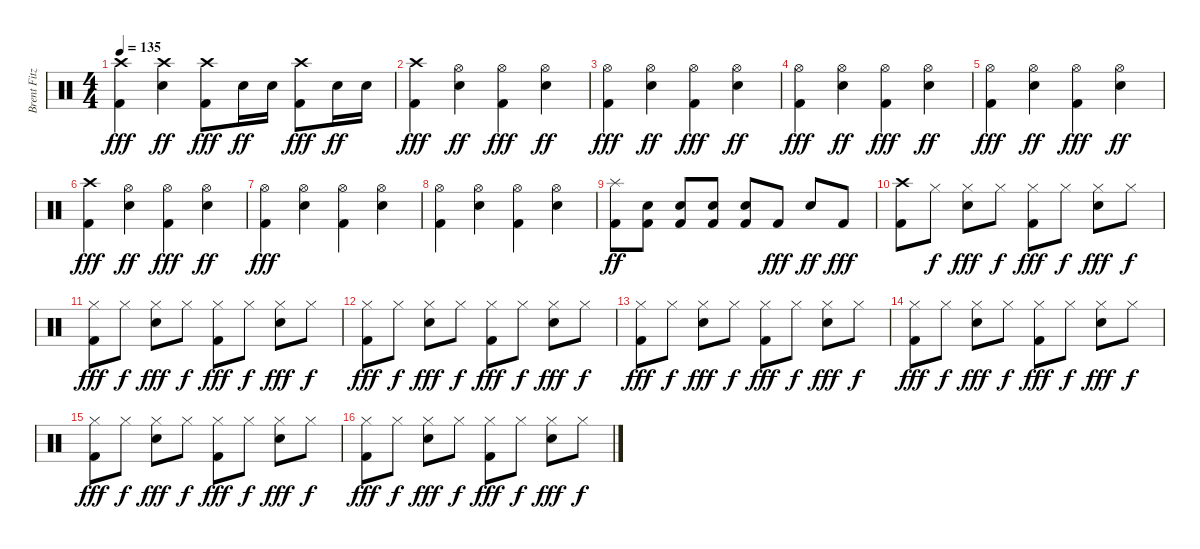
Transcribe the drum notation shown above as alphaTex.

\track ("Brent Fitz" "Brent Fitz") {instrument percussion}
\staff {score}
\articulation defaults
\ts (4 4)
\tempo 135
\clef neutral
\ks c
("Crash high (hit)" "Kick (hit) 2").4{dy fff} ("Crash high (hit)" "Snare (hit) 2").4{dy ff} ("Crash high (hit)" "Kick (hit) 2").8{dy fff} "Snare (hit) 2".16{dy ff} "Snare (hit) 2".16 ("Crash high (hit)" "Kick (hit) 2").8{dy fff} "Snare (hit) 2".16{dy ff} "Snare (hit) 2".16 |
("Crash high (hit)" "Kick (hit) 2").4{dy fff} ("Hi-Hat (open)" "Snare (hit) 2").4{dy ff} ("Hi-Hat (open)" "Kick (hit) 2").4{dy fff} ("Hi-Hat (open)" "Snare (hit) 2").4{dy ff} |
("Hi-Hat (open)" "Kick (hit) 2").4{dy fff} ("Hi-Hat (open)" "Snare (hit) 2").4{dy ff} ("Hi-Hat (open)" "Kick (hit) 2").4{dy fff} ("Hi-Hat (open)" "Snare (hit) 2").4{dy ff} |
("Hi-Hat (open)" "Kick (hit) 2").4{dy fff} ("Hi-Hat (open)" "Snare (hit) 2").4{dy ff} ("Hi-Hat (open)" "Kick (hit) 2").4{dy fff} ("Hi-Hat (open)" "Snare (hit) 2").4{dy ff} |
("Hi-Hat (open)" "Kick (hit) 2").4{dy fff} ("Hi-Hat (open)" "Snare (hit) 2").4{dy ff} ("Hi-Hat (open)" "Kick (hit) 2").4{dy fff} ("Hi-Hat (open)" "Snare (hit) 2").4{dy ff} |
("Crash high (hit)" "Kick (hit) 2").4{dy fff} ("Hi-Hat (open)" "Snare (hit) 2").4{dy ff} ("Hi-Hat (open)" "Kick (hit) 2").4{dy fff} ("Hi-Hat (open)" "Snare (hit) 2").4{dy ff} |
("Hi-Hat (open)" "Kick (hit) 2").4{dy fff} ("Hi-Hat (open)" "Snare (hit) 2").4 ("Hi-Hat (open)" "Kick (hit) 2").4 ("Hi-Hat (open)" "Snare (hit) 2").4 |
("Hi-Hat (open)" "Kick (hit) 2").4 ("Hi-Hat (open)" "Snare (hit) 2").4 ("Hi-Hat (open)" "Kick (hit) 2").4 ("Hi-Hat (open)" "Snare (hit) 2").4 |
("Splash (hit)" "Kick (hit) 2").8{dy ff} ("Snare (hit) 2" "Kick (hit) 2").8 ("Snare (hit) 2" "Kick (hit) 2").8 ("Snare (hit) 2" "Kick (hit) 2").8 ("Snare (hit) 2" "Kick (hit) 2").8 "Kick (hit) 2".8{dy fff} "Snare (hit) 2".8{dy ff} "Kick (hit) 2".8{dy fff} |
("Crash high (hit)" "Kick (hit) 2").8 "Hi-Hat (closed)".8{dy f} ("Hi-Hat (closed)" "Snare (hit) 2").8{dy fff} "Hi-Hat (closed)".8{dy f} ("Hi-Hat (closed)" "Kick (hit) 2").8{dy fff} "Hi-Hat (closed)".8{dy f} ("Hi-Hat (closed)" "Snare (hit) 2").8{dy fff} "Hi-Hat (closed)".8{dy f} |
("Hi-Hat (closed)" "Kick (hit) 2").8{dy fff} "Hi-Hat (closed)".8{dy f} ("Hi-Hat (closed)" "Snare (hit) 2").8{dy fff} "Hi-Hat (closed)".8{dy f} ("Hi-Hat (closed)" "Kick (hit) 2").8{dy fff} "Hi-Hat (closed)".8{dy f} ("Hi-Hat (closed)" "Snare (hit) 2").8{dy fff} "Hi-Hat (closed)".8{dy f} |
("Hi-Hat (closed)" "Kick (hit) 2").8{dy fff} "Hi-Hat (closed)".8{dy f} ("Hi-Hat (closed)" "Snare (hit) 2").8{dy fff} "Hi-Hat (closed)".8{dy f} ("Hi-Hat (closed)" "Kick (hit) 2").8{dy fff} "Hi-Hat (closed)".8{dy f} ("Hi-Hat (closed)" "Snare (hit) 2").8{dy fff} "Hi-Hat (closed)".8{dy f} |
("Hi-Hat (closed)" "Kick (hit) 2").8{dy fff} "Hi-Hat (closed)".8{dy f} ("Hi-Hat (closed)" "Snare (hit) 2").8{dy fff} "Hi-Hat (closed)".8{dy f} ("Hi-Hat (closed)" "Kick (hit) 2").8{dy fff} "Hi-Hat (closed)".8{dy f} ("Hi-Hat (closed)" "Snare (hit) 2").8{dy fff} "Hi-Hat (closed)".8{dy f} |
("Hi-Hat (closed)" "Kick (hit) 2").8{dy fff} "Hi-Hat (closed)".8{dy f} ("Hi-Hat (closed)" "Snare (hit) 2").8{dy fff} "Hi-Hat (closed)".8{dy f} ("Hi-Hat (closed)" "Kick (hit) 2").8{dy fff} "Hi-Hat (closed)".8{dy f} ("Hi-Hat (closed)" "Snare (hit) 2").8{dy fff} "Hi-Hat (closed)".8{dy f} |
("Hi-Hat (closed)" "Kick (hit) 2").8{dy fff} "Hi-Hat (closed)".8{dy f} ("Hi-Hat (closed)" "Snare (hit) 2").8{dy fff} "Hi-Hat (closed)".8{dy f} ("Hi-Hat (closed)" "Kick (hit) 2").8{dy fff} "Hi-Hat (closed)".8{dy f} ("Hi-Hat (closed)" "Snare (hit) 2").8{dy fff} "Hi-Hat (closed)".8{dy f} |
("Hi-Hat (closed)" "Kick (hit) 2").8{dy fff} "Hi-Hat (closed)".8{dy f} ("Hi-Hat (closed)" "Snare (hit) 2").8{dy fff} "Hi-Hat (closed)".8{dy f} ("Hi-Hat (closed)" "Kick (hit) 2").8{dy fff} "Hi-Hat (closed)".8{dy f} ("Hi-Hat (closed)" "Snare (hit) 2").8{dy fff} "Hi-Hat (closed)".8{dy f}
